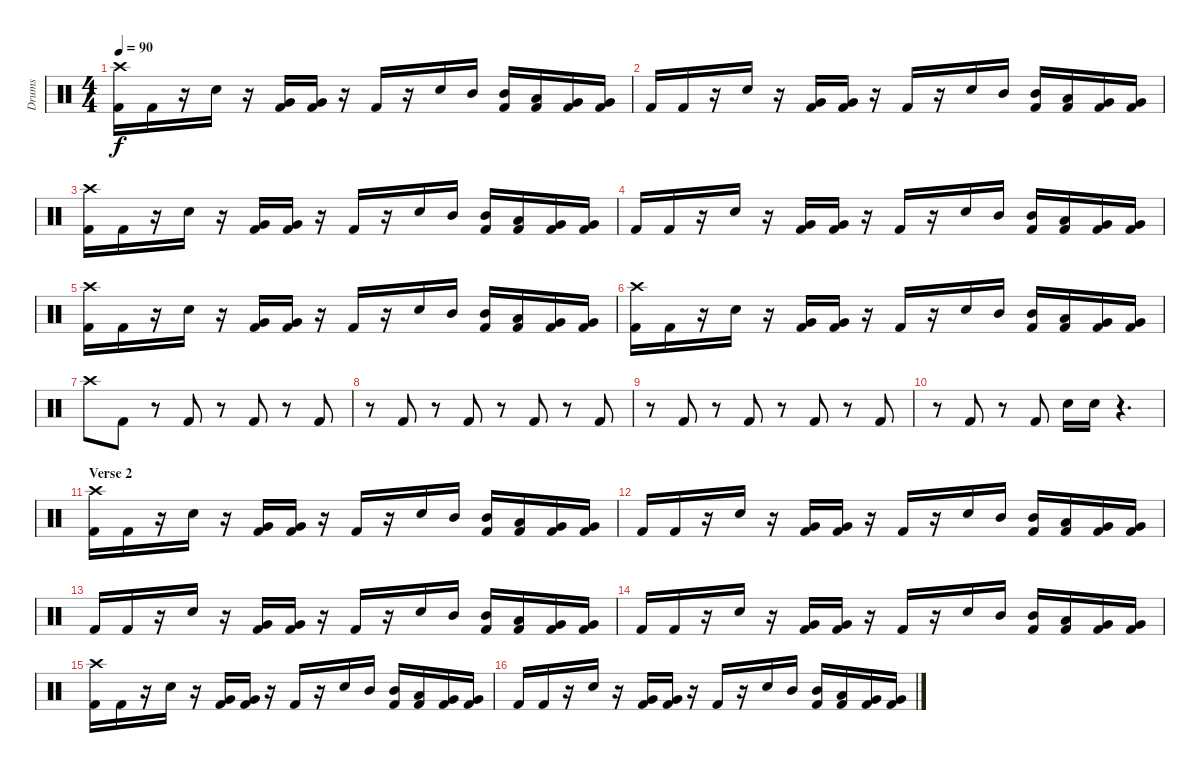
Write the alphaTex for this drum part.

\track ("Drums" "Drums") {instrument percussion}
\staff {score}
\articulation defaults
\ts (4 4)
\tempo 90
\clef neutral
\ks c
("Kick (hit) 2" "Crash high (hit)").16{dy f} "Kick (hit) 2".16 r.16 "Snare (hit) 2".16 r.16 ("Kick (hit) 2" "Very Low Tom (hit)").16 ("Kick (hit) 2" "Very Low Tom (hit)").16 r.16 "Kick (hit) 2".16 r.16 "Snare (hit) 2".16 "Mid Tom (hit)".16 ("Kick (hit) 2" "Mid Tom (hit)").16 ("Kick (hit) 2" "Low Tom (hit)").16 ("Kick (hit) 2" "Very Low Tom (hit)").16 ("Kick (hit) 2" "Very Low Tom (hit)").16 |
"Kick (hit) 2".16 "Kick (hit) 2".16 r.16 "Snare (hit) 2".16 r.16 ("Kick (hit) 2" "Very Low Tom (hit)").16 ("Kick (hit) 2" "Very Low Tom (hit)").16 r.16 "Kick (hit) 2".16 r.16 "Snare (hit) 2".16 "Mid Tom (hit)".16 ("Kick (hit) 2" "Mid Tom (hit)").16 ("Kick (hit) 2" "Low Tom (hit)").16 ("Kick (hit) 2" "Very Low Tom (hit)").16 ("Kick (hit) 2" "Very Low Tom (hit)").16 |
("Kick (hit) 2" "Crash high (hit)").16 "Kick (hit) 2".16 r.16 "Snare (hit) 2".16 r.16 ("Kick (hit) 2" "Very Low Tom (hit)").16 ("Kick (hit) 2" "Very Low Tom (hit)").16 r.16 "Kick (hit) 2".16 r.16 "Snare (hit) 2".16 "Mid Tom (hit)".16 ("Kick (hit) 2" "Mid Tom (hit)").16 ("Kick (hit) 2" "Low Tom (hit)").16 ("Kick (hit) 2" "Very Low Tom (hit)").16 ("Kick (hit) 2" "Very Low Tom (hit)").16 |
"Kick (hit) 2".16 "Kick (hit) 2".16 r.16 "Snare (hit) 2".16 r.16 ("Kick (hit) 2" "Very Low Tom (hit)").16 ("Kick (hit) 2" "Very Low Tom (hit)").16 r.16 "Kick (hit) 2".16 r.16 "Snare (hit) 2".16 "Mid Tom (hit)".16 ("Kick (hit) 2" "Mid Tom (hit)").16 ("Kick (hit) 2" "Low Tom (hit)").16 ("Kick (hit) 2" "Very Low Tom (hit)").16 ("Kick (hit) 2" "Very Low Tom (hit)").16 |
("Kick (hit) 2" "Crash high (hit)").16 "Kick (hit) 2".16 r.16 "Snare (hit) 2".16 r.16 ("Kick (hit) 2" "Very Low Tom (hit)").16 ("Kick (hit) 2" "Very Low Tom (hit)").16 r.16 "Kick (hit) 2".16 r.16 "Snare (hit) 2".16 "Mid Tom (hit)".16 ("Kick (hit) 2" "Mid Tom (hit)").16 ("Kick (hit) 2" "Low Tom (hit)").16 ("Kick (hit) 2" "Very Low Tom (hit)").16 ("Kick (hit) 2" "Very Low Tom (hit)").16 |
("Kick (hit) 2" "Crash high (hit)").16 "Kick (hit) 2".16 r.16 "Snare (hit) 2".16 r.16 ("Kick (hit) 2" "Very Low Tom (hit)").16 ("Kick (hit) 2" "Very Low Tom (hit)").16 r.16 "Kick (hit) 2".16 r.16 "Snare (hit) 2".16 "Mid Tom (hit)".16 ("Kick (hit) 2" "Mid Tom (hit)").16 ("Kick (hit) 2" "Low Tom (hit)").16 ("Kick (hit) 2" "Very Low Tom (hit)").16 ("Kick (hit) 2" "Very Low Tom (hit)").16 |
"Crash high (hit)".8 "Kick (hit) 2".8 r.8 "Kick (hit) 2".8 r.8 "Kick (hit) 2".8 r.8 "Kick (hit) 2".8 |
r.8 "Kick (hit) 2".8 r.8 "Kick (hit) 2".8 r.8 "Kick (hit) 2".8 r.8 "Kick (hit) 2".8 |
r.8 "Kick (hit) 2".8 r.8 "Kick (hit) 2".8 r.8 "Kick (hit) 2".8 r.8 "Kick (hit) 2".8 |
r.8 "Kick (hit) 2".8 r.8 "Kick (hit) 2".8 "Snare (hit) 2".16 "Snare (hit) 2".16 r.4{d} |
\section ("" "Verse 2")
("Kick (hit) 2" "Crash high (hit)").16 "Kick (hit) 2".16 r.16 "Snare (hit) 2".16 r.16 ("Kick (hit) 2" "Very Low Tom (hit)").16 ("Kick (hit) 2" "Very Low Tom (hit)").16 r.16 "Kick (hit) 2".16 r.16 "Snare (hit) 2".16 "Mid Tom (hit)".16 ("Kick (hit) 2" "Mid Tom (hit)").16 ("Kick (hit) 2" "Low Tom (hit)").16 ("Kick (hit) 2" "Very Low Tom (hit)").16 ("Kick (hit) 2" "Very Low Tom (hit)").16 |
"Kick (hit) 2".16 "Kick (hit) 2".16 r.16 "Snare (hit) 2".16 r.16 ("Kick (hit) 2" "Very Low Tom (hit)").16 ("Kick (hit) 2" "Very Low Tom (hit)").16 r.16 "Kick (hit) 2".16 r.16 "Snare (hit) 2".16 "Mid Tom (hit)".16 ("Kick (hit) 2" "Mid Tom (hit)").16 ("Kick (hit) 2" "Low Tom (hit)").16 ("Kick (hit) 2" "Very Low Tom (hit)").16 ("Kick (hit) 2" "Very Low Tom (hit)").16 |
"Kick (hit) 2".16 "Kick (hit) 2".16 r.16 "Snare (hit) 2".16 r.16 ("Kick (hit) 2" "Very Low Tom (hit)").16 ("Kick (hit) 2" "Very Low Tom (hit)").16 r.16 "Kick (hit) 2".16 r.16 "Snare (hit) 2".16 "Mid Tom (hit)".16 ("Kick (hit) 2" "Mid Tom (hit)").16 ("Kick (hit) 2" "Low Tom (hit)").16 ("Kick (hit) 2" "Very Low Tom (hit)").16 ("Kick (hit) 2" "Very Low Tom (hit)").16 |
"Kick (hit) 2".16 "Kick (hit) 2".16 r.16 "Snare (hit) 2".16 r.16 ("Kick (hit) 2" "Very Low Tom (hit)").16 ("Kick (hit) 2" "Very Low Tom (hit)").16 r.16 "Kick (hit) 2".16 r.16 "Snare (hit) 2".16 "Mid Tom (hit)".16 ("Kick (hit) 2" "Mid Tom (hit)").16 ("Kick (hit) 2" "Low Tom (hit)").16 ("Kick (hit) 2" "Very Low Tom (hit)").16 ("Kick (hit) 2" "Very Low Tom (hit)").16 |
("Kick (hit) 2" "Crash high (hit)").16 "Kick (hit) 2".16 r.16 "Snare (hit) 2".16 r.16 ("Kick (hit) 2" "Very Low Tom (hit)").16 ("Kick (hit) 2" "Very Low Tom (hit)").16 r.16 "Kick (hit) 2".16 r.16 "Snare (hit) 2".16 "Mid Tom (hit)".16 ("Kick (hit) 2" "Mid Tom (hit)").16 ("Kick (hit) 2" "Low Tom (hit)").16 ("Kick (hit) 2" "Very Low Tom (hit)").16 ("Kick (hit) 2" "Very Low Tom (hit)").16 |
"Kick (hit) 2".16 "Kick (hit) 2".16 r.16 "Snare (hit) 2".16 r.16 ("Kick (hit) 2" "Very Low Tom (hit)").16 ("Kick (hit) 2" "Very Low Tom (hit)").16 r.16 "Kick (hit) 2".16 r.16 "Snare (hit) 2".16 "Mid Tom (hit)".16 ("Kick (hit) 2" "Mid Tom (hit)").16 ("Kick (hit) 2" "Low Tom (hit)").16 ("Kick (hit) 2" "Very Low Tom (hit)").16 ("Kick (hit) 2" "Very Low Tom (hit)").16
